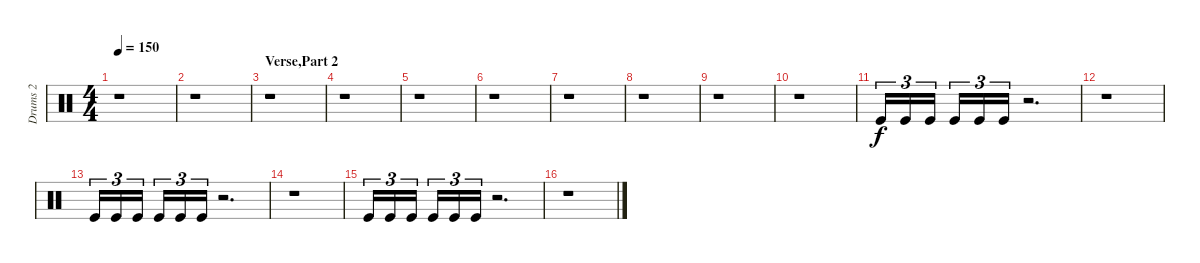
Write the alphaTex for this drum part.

\track ("Drums 2" "Drums 2") {instrument percussion}
\staff {score}
\articulation defaults
\ts (4 4)
\tempo 150
\clef neutral
\ks c
r.1{dy f} |
r.1 |
\section ("" "Verse,Part 2")
r.1 |
r.1 |
r.1 |
r.1 |
r.1 |
r.1 |
r.1 |
r.1 |
"Kick (hit)".16{tu (3 2)} "Kick (hit)".16{tu (3 2)} "Kick (hit)".16{tu (3 2)} "Kick (hit)".16{tu (3 2)} "Kick (hit)".16{tu (3 2)} "Kick (hit)".16{tu (3 2)} r.2{d} |
r.1 |
"Kick (hit)".16{tu (3 2)} "Kick (hit)".16{tu (3 2)} "Kick (hit)".16{tu (3 2)} "Kick (hit)".16{tu (3 2)} "Kick (hit)".16{tu (3 2)} "Kick (hit)".16{tu (3 2)} r.2{d} |
r.1 |
"Kick (hit)".16{tu (3 2)} "Kick (hit)".16{tu (3 2)} "Kick (hit)".16{tu (3 2)} "Kick (hit)".16{tu (3 2)} "Kick (hit)".16{tu (3 2)} "Kick (hit)".16{tu (3 2)} r.2{d} |
r.1
